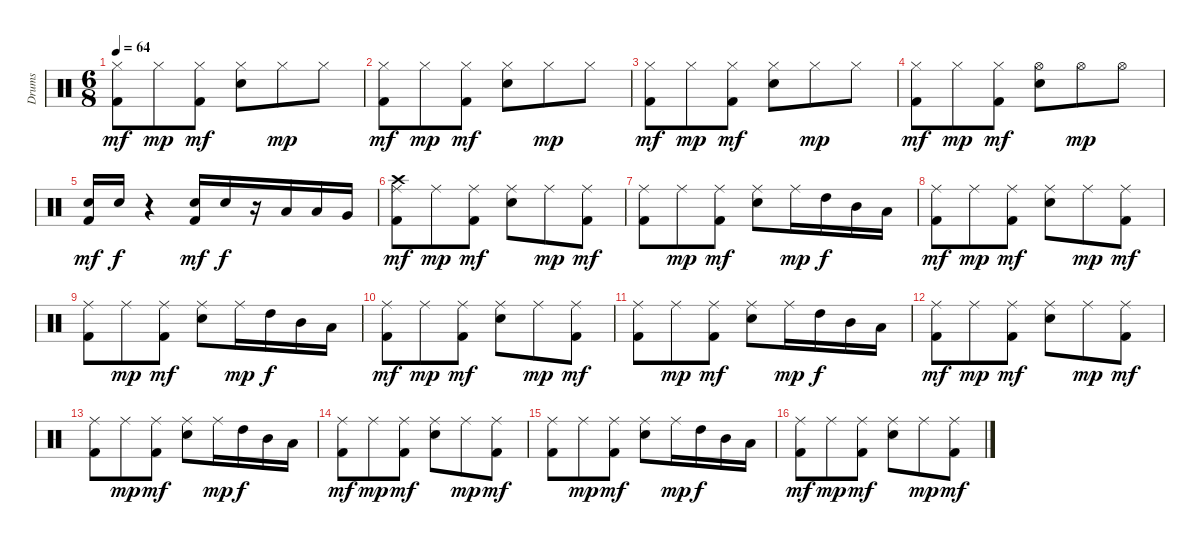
\track ("Drums" "Drums") {instrument percussion}
\staff {score}
\articulation defaults
\ts (6 8)
\tempo 64
\clef neutral
\ks c
("Hi-Hat (closed)" "Kick (hit) 2").8{dy mf} "Hi-Hat (closed)".8{dy mp} ("Hi-Hat (closed)" "Kick (hit) 2").8{dy mf} ("Hi-Hat (closed)" "Snare (hit) 2").8 "Hi-Hat (closed)".8{dy mp} "Hi-Hat (closed)".8 |
("Hi-Hat (closed)" "Kick (hit) 2").8{dy mf} "Hi-Hat (closed)".8{dy mp} ("Hi-Hat (closed)" "Kick (hit) 2").8{dy mf} ("Hi-Hat (closed)" "Snare (hit) 2").8 "Hi-Hat (closed)".8{dy mp} "Hi-Hat (closed)".8 |
("Hi-Hat (closed)" "Kick (hit) 2").8{dy mf} "Hi-Hat (closed)".8{dy mp} ("Hi-Hat (closed)" "Kick (hit) 2").8{dy mf} ("Hi-Hat (closed)" "Snare (hit) 2").8 "Hi-Hat (closed)".8{dy mp} "Hi-Hat (closed)".8 |
("Hi-Hat (closed)" "Kick (hit) 2").8{dy mf} "Hi-Hat (closed)".8{dy mp} ("Hi-Hat (closed)" "Kick (hit) 2").8{dy mf} ("Hi-Hat (open)" "Snare (hit) 2").8 "Hi-Hat (open)".8{dy mp} "Hi-Hat (open)".8 |
("Snare (hit) 2" "Kick (hit) 2").16{dy mf} "Snare (hit) 2".16{dy f} r.4 ("Snare (hit) 2" "Kick (hit) 2").16{dy mf} "Snare (hit) 2".16{dy f} r.16 "Low Tom (hit)".16 "Low Tom (hit)".16 "Very Low Tom (hit)".16 |
("Crash high (hit)" "Ride (middle)" "Kick (hit) 2").8{dy mf} "Ride (middle)".8{dy mp} ("Ride (middle)" "Kick (hit) 2").8{dy mf} ("Ride (middle)" "Snare (hit) 2").8 "Ride (middle)".8{dy mp} ("Ride (middle)" "Kick (hit) 2").8{dy mf} |
("Ride (middle)" "Kick (hit) 2").8 "Ride (middle)".8{dy mp} ("Ride (middle)" "Kick (hit) 2").8{dy mf} ("Ride (middle)" "Snare (hit) 2").8 "Ride (middle)".16{dy mp} "High Tom (hit)".16{dy f} "Mid Tom (hit)".16 "Low Tom (hit)".16 |
("Ride (middle)" "Kick (hit) 2").8{dy mf} "Ride (middle)".8{dy mp} ("Ride (middle)" "Kick (hit) 2").8{dy mf} ("Ride (middle)" "Snare (hit) 2").8 "Ride (middle)".8{dy mp} ("Ride (middle)" "Kick (hit) 2").8{dy mf} |
("Ride (middle)" "Kick (hit) 2").8 "Ride (middle)".8{dy mp} ("Ride (middle)" "Kick (hit) 2").8{dy mf} ("Ride (middle)" "Snare (hit) 2").8 "Ride (middle)".16{dy mp} "High Tom (hit)".16{dy f} "Mid Tom (hit)".16 "Low Tom (hit)".16 |
("Ride (middle)" "Kick (hit) 2").8{dy mf} "Ride (middle)".8{dy mp} ("Ride (middle)" "Kick (hit) 2").8{dy mf} ("Ride (middle)" "Snare (hit) 2").8 "Ride (middle)".8{dy mp} ("Ride (middle)" "Kick (hit) 2").8{dy mf} |
("Ride (middle)" "Kick (hit) 2").8 "Ride (middle)".8{dy mp} ("Ride (middle)" "Kick (hit) 2").8{dy mf} ("Ride (middle)" "Snare (hit) 2").8 "Ride (middle)".16{dy mp} "High Tom (hit)".16{dy f} "Mid Tom (hit)".16 "Low Tom (hit)".16 |
("Ride (middle)" "Kick (hit) 2").8{dy mf} "Ride (middle)".8{dy mp} ("Ride (middle)" "Kick (hit) 2").8{dy mf} ("Ride (middle)" "Snare (hit) 2").8 "Ride (middle)".8{dy mp} ("Ride (middle)" "Kick (hit) 2").8{dy mf} |
("Ride (middle)" "Kick (hit) 2").8 "Ride (middle)".8{dy mp} ("Ride (middle)" "Kick (hit) 2").8{dy mf} ("Ride (middle)" "Snare (hit) 2").8 "Ride (middle)".16{dy mp} "High Tom (hit)".16{dy f} "Mid Tom (hit)".16 "Low Tom (hit)".16 |
("Ride (middle)" "Kick (hit) 2").8{dy mf} "Ride (middle)".8{dy mp} ("Ride (middle)" "Kick (hit) 2").8{dy mf} ("Ride (middle)" "Snare (hit) 2").8 "Ride (middle)".8{dy mp} ("Ride (middle)" "Kick (hit) 2").8{dy mf} |
("Ride (middle)" "Kick (hit) 2").8 "Ride (middle)".8{dy mp} ("Ride (middle)" "Kick (hit) 2").8{dy mf} ("Ride (middle)" "Snare (hit) 2").8 "Ride (middle)".16{dy mp} "High Tom (hit)".16{dy f} "Mid Tom (hit)".16 "Low Tom (hit)".16 |
("Ride (middle)" "Kick (hit) 2").8{dy mf} "Ride (middle)".8{dy mp} ("Ride (middle)" "Kick (hit) 2").8{dy mf} ("Ride (middle)" "Snare (hit) 2").8 "Ride (middle)".8{dy mp} ("Ride (middle)" "Kick (hit) 2").8{dy mf}
